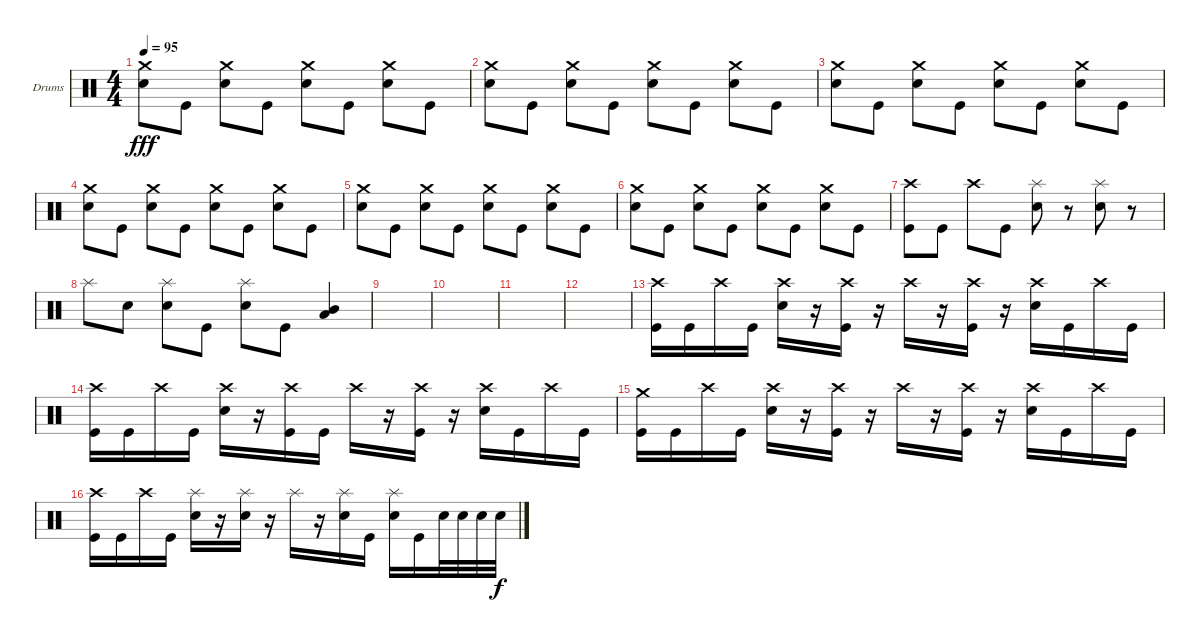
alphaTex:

\bracketExtendMode groupsimilarinstruments
\firstSystemTrackNameOrientation horizontal
\otherSystemsTrackNameOrientation horizontal
\track ("Drumkit" "Drums") {instrument percussion}
\staff {score}
\articulation defaults
\ts (4 4)
\tempo 95
\clef neutral
\ks c
("Crash medium (hit)" "Snare (hit) 2").8{dy fff} "Kick (hit)".8 ("Crash medium (hit)" "Snare (hit) 2").8 "Kick (hit)".8 ("Crash medium (hit)" "Snare (hit) 2").8 "Kick (hit)".8 ("Crash medium (hit)" "Snare (hit) 2").8 "Kick (hit)".8 |
("Crash medium (hit)" "Snare (hit) 2").8 "Kick (hit)".8 ("Crash medium (hit)" "Snare (hit) 2").8 "Kick (hit)".8 ("Crash medium (hit)" "Snare (hit) 2").8 "Kick (hit)".8 ("Crash medium (hit)" "Snare (hit) 2").8 "Kick (hit)".8 |
("Crash medium (hit)" "Snare (hit) 2").8 "Kick (hit)".8 ("Crash medium (hit)" "Snare (hit) 2").8 "Kick (hit)".8 ("Crash medium (hit)" "Snare (hit) 2").8 "Kick (hit)".8 ("Crash medium (hit)" "Snare (hit) 2").8 "Kick (hit)".8 |
("Crash medium (hit)" "Snare (hit) 2").8 "Kick (hit)".8 ("Crash medium (hit)" "Snare (hit) 2").8 "Kick (hit)".8 ("Crash medium (hit)" "Snare (hit) 2").8 "Kick (hit)".8 ("Crash medium (hit)" "Snare (hit) 2").8 "Kick (hit)".8 |
("Crash medium (hit)" "Snare (hit) 2").8 "Kick (hit)".8 ("Crash medium (hit)" "Snare (hit) 2").8 "Kick (hit)".8 ("Crash medium (hit)" "Snare (hit) 2").8 "Kick (hit)".8 ("Crash medium (hit)" "Snare (hit) 2").8 "Kick (hit)".8 |
("Crash medium (hit)" "Snare (hit) 2").8 "Kick (hit)".8 ("Crash medium (hit)" "Snare (hit) 2").8 "Kick (hit)".8 ("Crash medium (hit)" "Snare (hit) 2").8 "Kick (hit)".8 ("Crash medium (hit)" "Snare (hit) 2").8 "Kick (hit)".8 |
("Crash high (hit)" "Kick (hit)").8 "Kick (hit)".8 "Crash high (hit)".8 "Kick (hit)".8 ("Splash (hit)" "Snare (hit) 2").8 r.8 ("Splash (hit)" "Snare (hit) 2").8 r.8 |
"Splash (hit)".8 "Snare (hit) 2".8 ("Splash (hit)" "Snare (hit) 2").8 "Kick (hit)".8 ("Splash (hit)" "Snare (hit) 2").8 "Kick (hit)".8 ("Low Tom (hit)" "Mid Tom (hit)").4 |
|
|
|
|
("Crash high (hit)" "Kick (hit)").16 "Kick (hit)".16 "Crash high (hit)".16 "Kick (hit)".16 ("Crash high (hit)" "Snare (hit) 2").16 r.16 ("Crash high (hit)" "Kick (hit)").16 r.16 "Crash high (hit)".16 r.16 ("Crash high (hit)" "Kick (hit)").16 r.16 ("Crash high (hit)" "Snare (hit) 2").16 "Kick (hit)".16 "Crash high (hit)".16 "Kick (hit)".16 |
("Crash high (hit)" "Kick (hit)").16 "Kick (hit)".16 "Crash high (hit)".16 "Kick (hit)".16 ("Crash high (hit)" "Snare (hit) 2").16 r.16 ("Crash high (hit)" "Kick (hit)").16 "Kick (hit)".16 "Crash high (hit)".16 r.16 ("Crash high (hit)" "Kick (hit)").16 r.16 ("Crash high (hit)" "Snare (hit) 2").16 "Kick (hit)".16 "Crash high (hit)".16 "Kick (hit)".16 |
("Crash medium (hit)" "Kick (hit)").16 "Kick (hit)".16 "Crash high (hit)".16 "Kick (hit)".16 ("Crash high (hit)" "Snare (hit) 2").16 r.16 ("Crash high (hit)" "Kick (hit)").16 r.16 "Crash high (hit)".16 r.16 ("Crash high (hit)" "Kick (hit)").16 r.16 ("Crash high (hit)" "Snare (hit) 2").16 "Kick (hit)".16 "Crash high (hit)".16 "Kick (hit)".16 |
("Crash high (hit)" "Kick (hit)").16 "Kick (hit)".16 "Crash high (hit)".16 "Kick (hit)".16 ("Splash (hit)" "Snare (hit) 2").16 r.16 ("Splash (hit)" "Snare (hit) 2").16 r.16 "Splash (hit)".16 r.16 ("Splash (hit)" "Snare (hit) 2").16 "Kick (hit)".16 ("Splash (hit)" "Snare (hit) 2").16 "Kick (hit)".16 "Snare (hit) 2".32 "Snare (hit) 2".32 "Snare (hit) 2".32 "Snare (hit) 2".32{dy f}
